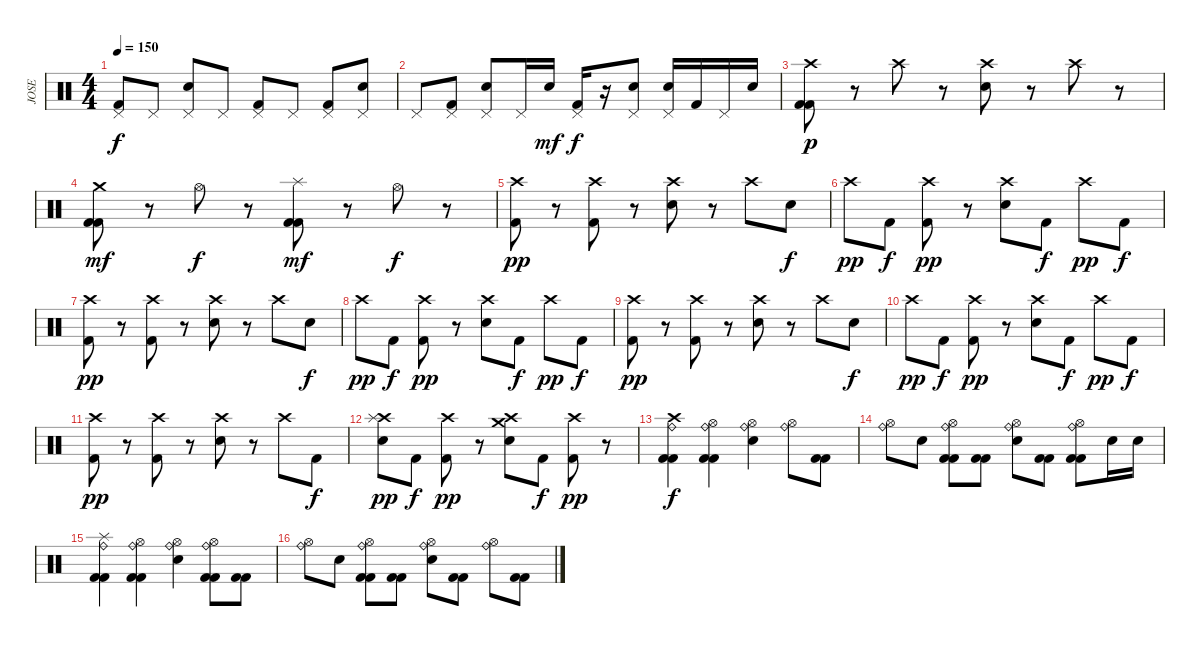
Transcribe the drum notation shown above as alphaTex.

\track ("JOSE" "JOSE") {instrument percussion}
\staff {score}
\articulation defaults
\ts (4 4)
\tempo 150
\clef neutral
\ks c
("Pedal Hi-Hat (hit)" "Kick (hit) 2").8{dy f} "Pedal Hi-Hat (hit)".8 ("Pedal Hi-Hat (hit)" "Electric Snare (hit)").8 "Pedal Hi-Hat (hit)".8 ("Pedal Hi-Hat (hit)" "Kick (hit) 2").8 "Pedal Hi-Hat (hit)".8 ("Pedal Hi-Hat (hit)" "Kick (hit) 2").8 ("Pedal Hi-Hat (hit)" "Electric Snare (hit)").8 |
"Pedal Hi-Hat (hit)".8 ("Pedal Hi-Hat (hit)" "Kick (hit) 2").8 ("Pedal Hi-Hat (hit)" "Electric Snare (hit)").8 "Pedal Hi-Hat (hit)".16 "Electric Snare (hit)".16{dy mf} ("Pedal Hi-Hat (hit)" "Kick (hit) 2").16{dy f} r.16 ("Pedal Hi-Hat (hit)" "Electric Snare (hit)").8 ("Pedal Hi-Hat (hit)" "Electric Snare (hit)").16 "Kick (hit) 2".16 "Pedal Hi-Hat (hit)".16 "Electric Snare (hit)".16 |
("Crash high (hit)" "Kick (hit) 2" "Kick (hit) 2").8{dy p} r.8 "Crash high (hit)".8 r.8 ("Crash high (hit)" "Electric Snare (hit)").8 r.8 "Crash high (hit)".8 r.8 |
("Crash medium (hit)" "Kick (hit) 2" "Kick (hit) 2").8{dy mf} r.8 "Hi-Hat (open)".8{dy f} r.8 ("Splash (hit)" "Kick (hit) 2" "Kick (hit) 2").8{dy mf} r.8 "Hi-Hat (open)".8{dy f} r.8 |
("Crash high (hit)" "Kick (hit) 2").8{dy pp} r.8 ("Crash high (hit)" "Kick (hit) 2").8 r.8 ("Crash high (hit)" "Electric Snare (hit)").8 r.8 "Crash high (hit)".8 "Electric Snare (hit)".8{dy f} |
"Crash high (hit)".8{dy pp} "Kick (hit) 2".8{dy f} ("Crash high (hit)" "Kick (hit) 2").8{dy pp} r.8 ("Crash high (hit)" "Electric Snare (hit)").8 "Kick (hit) 2".8{dy f} "Crash high (hit)".8{dy pp} "Kick (hit) 2".8{dy f} |
("Crash high (hit)" "Kick (hit) 2").8{dy pp} r.8 ("Crash high (hit)" "Kick (hit) 2").8 r.8 ("Crash high (hit)" "Electric Snare (hit)").8 r.8 "Crash high (hit)".8 "Electric Snare (hit)".8{dy f} |
"Crash high (hit)".8{dy pp} "Kick (hit) 2".8{dy f} ("Crash high (hit)" "Kick (hit) 2").8{dy pp} r.8 ("Crash high (hit)" "Electric Snare (hit)").8 "Kick (hit) 2".8{dy f} "Crash high (hit)".8{dy pp} "Kick (hit) 2".8{dy f} |
("Crash high (hit)" "Kick (hit) 2").8{dy pp} r.8 ("Crash high (hit)" "Kick (hit) 2").8 r.8 ("Crash high (hit)" "Electric Snare (hit)").8 r.8 "Crash high (hit)".8 "Electric Snare (hit)".8{dy f} |
"Crash high (hit)".8{dy pp} "Kick (hit) 2".8{dy f} ("Crash high (hit)" "Kick (hit) 2").8{dy pp} r.8 ("Crash high (hit)" "Electric Snare (hit)").8 "Kick (hit) 2".8{dy f} "Crash high (hit)".8{dy pp} "Kick (hit) 2".8{dy f} |
("Crash high (hit)" "Kick (hit) 2").8{dy pp} r.8 ("Crash high (hit)" "Kick (hit) 2").8 r.8 ("Crash high (hit)" "Electric Snare (hit)").8 r.8 "Crash high (hit)".8 "Kick (hit) 2".8{dy f} |
("Crash high (hit)" "Splash (hit)" "Electric Snare (hit)").8{dy pp} "Kick (hit) 2".8{dy f} ("Crash high (hit)" "Kick (hit) 2").8{dy pp} r.8 ("Crash high (hit)" "Crash medium (hit)" "Electric Snare (hit)").8 "Kick (hit) 2".8{dy f} ("Crash high (hit)" "Kick (hit) 2").8{dy pp} r.8 |
("Ride (bell)" "Crash high (hit)" "Kick (hit) 2" "Kick (hit) 2").4{dy f} ("Ride (bell)" "Hi-Hat (open)" "Kick (hit) 2" "Kick (hit) 2").4 ("Ride (bell)" "Hi-Hat (open)" "Electric Snare (hit)").4 ("Ride (bell)" "Hi-Hat (open)").8 ("Kick (hit) 2" "Kick (hit) 2").8 |
("Ride (bell)" "Hi-Hat (open)").8 "Electric Snare (hit)".8 ("Ride (bell)" "Hi-Hat (open)" "Kick (hit) 2" "Kick (hit) 2").8 ("Kick (hit) 2" "Kick (hit) 2").8 ("Ride (bell)" "Hi-Hat (open)" "Electric Snare (hit)").8 ("Kick (hit) 2" "Kick (hit) 2").8 ("Ride (bell)" "Hi-Hat (open)" "Kick (hit) 2" "Kick (hit) 2").8 "Electric Snare (hit)".16 "Electric Snare (hit)".16 |
("Ride (bell)" "Splash (hit)" "Kick (hit) 2" "Kick (hit) 2").4 ("Ride (bell)" "Hi-Hat (open)" "Kick (hit) 2" "Kick (hit) 2").4 ("Ride (bell)" "Hi-Hat (open)" "Electric Snare (hit)").4 ("Ride (bell)" "Hi-Hat (open)" "Kick (hit) 2" "Kick (hit) 2").8 ("Kick (hit) 2" "Kick (hit) 2").8 |
("Ride (bell)" "Hi-Hat (open)").8 "Electric Snare (hit)".8 ("Ride (bell)" "Hi-Hat (open)" "Kick (hit) 2" "Kick (hit) 2").8 ("Kick (hit) 2" "Kick (hit) 2").8 ("Ride (bell)" "Hi-Hat (open)" "Electric Snare (hit)").8 ("Kick (hit) 2" "Kick (hit) 2").8 ("Ride (bell)" "Hi-Hat (open)").8 ("Kick (hit) 2" "Kick (hit) 2").8
